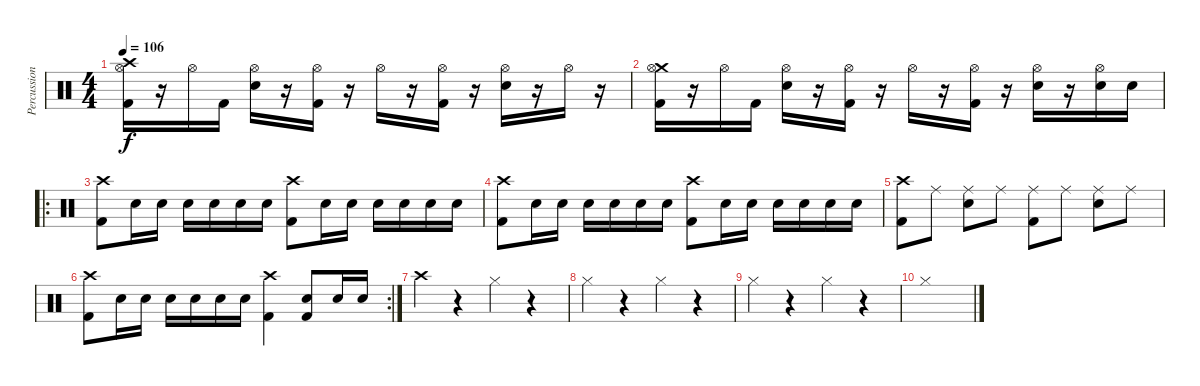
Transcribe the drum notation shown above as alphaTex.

\track ("Percussion" "Percussion") {instrument percussion}
\staff {score}
\articulation defaults
\ts (4 4)
\tempo 106
\clef neutral
\ks c
("Crash high (hit)" "Hi-Hat (open)" "Kick (hit) 2").16{dy f} r.16 "Hi-Hat (open)".16 "Kick (hit) 2".16 ("Hi-Hat (open)" "Electric Snare (hit)").16 r.16 ("Hi-Hat (open)" "Kick (hit) 2").16 r.16 "Hi-Hat (open)".16 r.16 ("Hi-Hat (open)" "Kick (hit) 2").16 r.16 ("Hi-Hat (open)" "Electric Snare (hit)").16 r.16 "Hi-Hat (open)".16 r.16 |
("Crash medium (hit)" "Hi-Hat (open)" "Kick (hit) 2").16 r.16 "Hi-Hat (open)".16 "Kick (hit) 2".16 ("Hi-Hat (open)" "Electric Snare (hit)").16 r.16 ("Hi-Hat (open)" "Kick (hit) 2").16 r.16 "Hi-Hat (open)".16 r.16 ("Hi-Hat (open)" "Kick (hit) 2").16 r.16 ("Hi-Hat (open)" "Electric Snare (hit)").16 r.16 ("Hi-Hat (open)" "Electric Snare (hit)").16 "Electric Snare (hit)".16 |
\ro
("Crash high (hit)" "Kick (hit) 2").8 "Electric Snare (hit)".16 "Electric Snare (hit)".16 "Electric Snare (hit)".16 "Electric Snare (hit)".16 "Electric Snare (hit)".16 "Electric Snare (hit)".16 ("Crash high (hit)" "Kick (hit) 2").8 "Electric Snare (hit)".16 "Electric Snare (hit)".16 "Electric Snare (hit)".16 "Electric Snare (hit)".16 "Electric Snare (hit)".16 "Electric Snare (hit)".16 |
("Crash high (hit)" "Kick (hit) 2").8 "Electric Snare (hit)".16 "Electric Snare (hit)".16 "Electric Snare (hit)".16 "Electric Snare (hit)".16 "Electric Snare (hit)".16 "Electric Snare (hit)".16 ("Crash high (hit)" "Kick (hit) 2").8 "Electric Snare (hit)".16 "Electric Snare (hit)".16 "Electric Snare (hit)".16 "Electric Snare (hit)".16 "Electric Snare (hit)".16 "Electric Snare (hit)".16 |
("Crash high (hit)" "Kick (hit) 2").8 "Ride (middle)".8 ("Ride (middle)" "Electric Snare (hit)").8 "Ride (middle)".8 ("Ride (middle)" "Kick (hit) 2").8 "Ride (middle)".8 ("Ride (middle)" "Electric Snare (hit)").8 "Ride (middle)".8 |
\rc 2
("Crash high (hit)" "Kick (hit) 2").8 "Electric Snare (hit)".16 "Electric Snare (hit)".16 "Electric Snare (hit)".16 "Electric Snare (hit)".16 "Electric Snare (hit)".16 "Electric Snare (hit)".16 ("Crash high (hit)" "Kick (hit) 2").4 ("Electric Snare (hit)" "Kick (hit) 2").8 "Electric Snare (hit)".16 "Electric Snare (hit)".16 |
"Crash high (hit)".4 r.4 "Hi-Hat (closed)".4 r.4 |
"Hi-Hat (closed)".4 r.4 "Hi-Hat (closed)".4 r.4 |
"Hi-Hat (closed)".4 r.4 "Hi-Hat (closed)".4 r.4 |
"Hi-Hat (closed)".1
